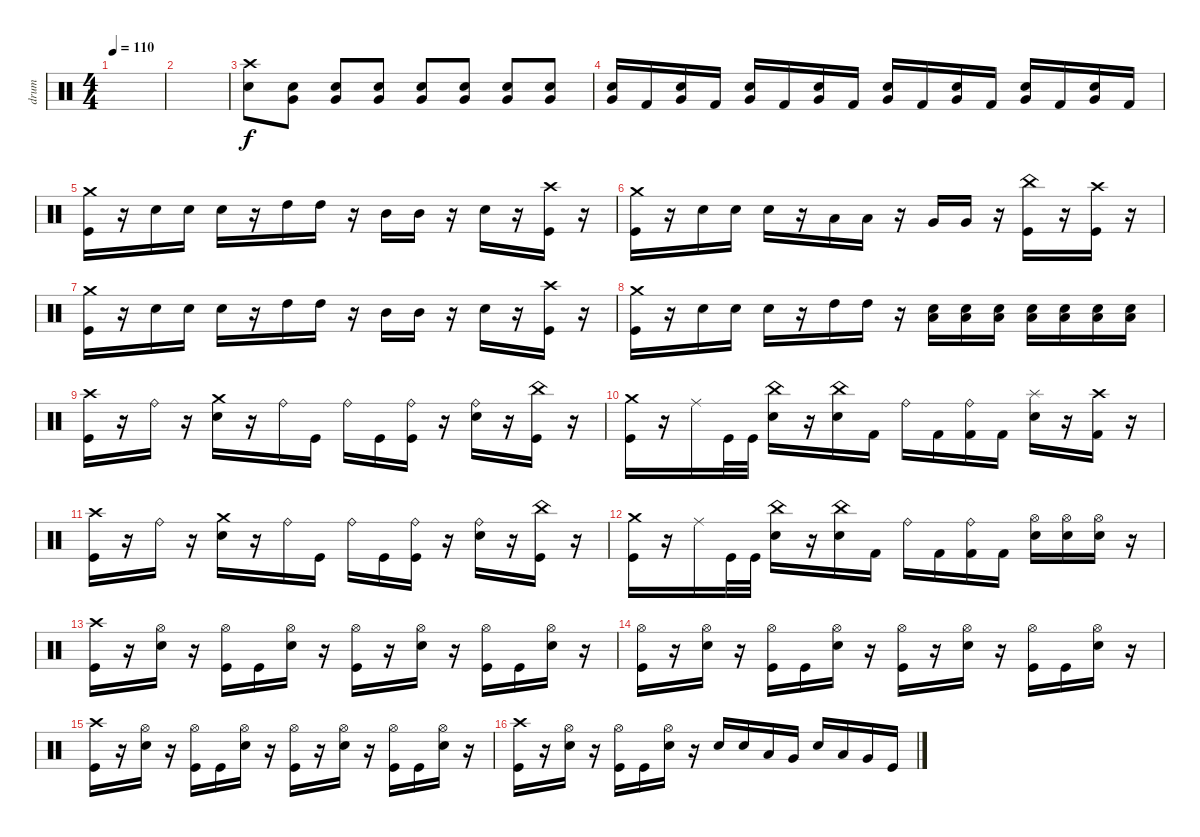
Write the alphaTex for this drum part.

\track ("drum" "drum") {instrument percussion}
\staff {score}
\articulation defaults
\ts (4 4)
\tempo 110
\clef neutral
\ks c
|
|
("Snare (hit) 2" "Crash high (hit)").8 ("Snare (hit) 2" "Very Low Tom (hit)").8 ("Snare (hit) 2" "Very Low Tom (hit)").8 ("Snare (hit) 2" "Very Low Tom (hit)").8 ("Snare (hit) 2" "Very Low Tom (hit)").8 ("Snare (hit) 2" "Very Low Tom (hit)").8 ("Snare (hit) 2" "Very Low Tom (hit)").8 ("Snare (hit) 2" "Very Low Tom (hit)").8 |
("Snare (hit) 2" "Very Low Tom (hit)").16 "Kick (hit) 2".16 ("Snare (hit) 2" "Very Low Tom (hit)").16 "Kick (hit) 2".16 ("Snare (hit) 2" "Very Low Tom (hit)").16 "Kick (hit) 2".16 ("Snare (hit) 2" "Very Low Tom (hit)").16 "Kick (hit) 2".16 ("Snare (hit) 2" "Very Low Tom (hit)").16 "Kick (hit) 2".16 ("Snare (hit) 2" "Very Low Tom (hit)").16 "Kick (hit) 2".16 ("Snare (hit) 2" "Very Low Tom (hit)").16 "Kick (hit) 2".16 ("Snare (hit) 2" "Very Low Tom (hit)").16 "Kick (hit) 2".16 |
("Crash medium (hit)" "Kick (hit)").16 r.16 "Snare (hit) 2".16 "Snare (hit) 2".16 "Snare (hit) 2".16 r.16 "High Tom (hit)".16 "High Tom (hit)".16 r.16 "Mid Tom (hit)".16 "Mid Tom (hit)".16 r.16 "Snare (hit) 2".16 r.16 ("Crash high (hit)" "Kick (hit)").16 r.16 |
("Crash medium (hit)" "Kick (hit)").16 r.16 "Snare (hit) 2".16 "Snare (hit) 2".16 "Snare (hit) 2".16 r.16 "Low Tom (hit)".16 "Low Tom (hit)".16 r.16 "Very Low Tom (hit)".16 "Very Low Tom (hit)".16 r.16 ("China (hit)" "Kick (hit)").16 r.16 ("Crash high (hit)" "Kick (hit)").16 r.16 |
("Crash medium (hit)" "Kick (hit)").16 r.16 "Snare (hit) 2".16 "Snare (hit) 2".16 "Snare (hit) 2".16 r.16 "High Tom (hit)".16 "High Tom (hit)".16 r.16 "Mid Tom (hit)".16 "Mid Tom (hit)".16 r.16 "Snare (hit) 2".16 r.16 ("Crash high (hit)" "Kick (hit)").16 r.16 |
("Crash medium (hit)" "Kick (hit)").16 r.16 "Snare (hit) 2".16 "Snare (hit) 2".16 "Snare (hit) 2".16 r.16 "High Tom (hit)".16 "High Tom (hit)".16 r.16 ("Low Tom (hit)" "Snare (hit) 2").16 ("Low Tom (hit)" "Snare (hit) 2").16 ("Low Tom (hit)" "Snare (hit) 2").16 ("Low Tom (hit)" "Snare (hit) 2").16 ("Low Tom (hit)" "Snare (hit) 2").16 ("Low Tom (hit)" "Snare (hit) 2").16 ("Low Tom (hit)" "Snare (hit) 2").16 |
("Crash high (hit)" "Kick (hit)").16 r.16 "Ride (bell)".16 r.16 ("Crash medium (hit)" "Snare (hit) 2").16 r.16 "Ride (bell)".16 "Kick (hit)".16 "Ride (bell)".16 "Kick (hit)".16 ("Ride (bell)" "Kick (hit)").16 r.16 ("Ride (bell)" "Snare (hit) 2").16 r.16 ("China (hit)" "Kick (hit)").16 r.16 |
("Crash medium (hit)" "Kick (hit)").16 r.16 "Ride (middle)".16 "Kick (hit)".32 "Kick (hit)".32 ("China (hit)" "Snare (hit) 2").16 r.16 ("China (hit)" "Snare (hit) 2").16 "Kick (hit) 2".16 "Ride (bell)".16 "Kick (hit) 2".16 ("Ride (bell)" "Kick (hit) 2").16 "Kick (hit) 2".16 ("Splash (hit)" "Snare (hit) 2").16 r.16 ("Crash high (hit)" "Kick (hit) 2").16 r.16 |
("Crash high (hit)" "Kick (hit)").16 r.16 "Ride (bell)".16 r.16 ("Crash medium (hit)" "Snare (hit) 2").16 r.16 "Ride (bell)".16 "Kick (hit)".16 "Ride (bell)".16 "Kick (hit)".16 ("Ride (bell)" "Kick (hit)").16 r.16 ("Ride (bell)" "Snare (hit) 2").16 r.16 ("China (hit)" "Kick (hit)").16 r.16 |
("Crash medium (hit)" "Kick (hit)").16 r.16 "Ride (middle)".16 "Kick (hit)".32 "Kick (hit)".32 ("China (hit)" "Snare (hit) 2").16 r.16 ("China (hit)" "Snare (hit) 2").16 "Kick (hit) 2".16 "Ride (bell)".16 "Kick (hit) 2".16 ("Ride (bell)" "Kick (hit) 2").16 "Kick (hit) 2".16 ("Hi-Hat (open)" "Snare (hit) 2").16 ("Hi-Hat (open)" "Snare (hit) 2").16 ("Hi-Hat (open)" "Snare (hit) 2").16 r.16 |
("Crash high (hit)" "Kick (hit)").16 r.16 ("Hi-Hat (open)" "Snare (hit) 2").16 r.16 ("Hi-Hat (open)" "Kick (hit)").16 "Kick (hit)".16 ("Hi-Hat (open)" "Snare (hit) 2").16 r.16 ("Hi-Hat (open)" "Kick (hit)").16 r.16 ("Hi-Hat (open)" "Snare (hit) 2").16 r.16 ("Hi-Hat (open)" "Kick (hit)").16 "Kick (hit)".16 ("Hi-Hat (open)" "Snare (hit) 2").16 r.16 |
("Hi-Hat (open)" "Kick (hit)").16 r.16 ("Hi-Hat (open)" "Snare (hit) 2").16 r.16 ("Hi-Hat (open)" "Kick (hit)").16 "Kick (hit)".16 ("Hi-Hat (open)" "Snare (hit) 2").16 r.16 ("Hi-Hat (open)" "Kick (hit)").16 r.16 ("Hi-Hat (open)" "Snare (hit) 2").16 r.16 ("Hi-Hat (open)" "Kick (hit)").16 "Kick (hit)".16 ("Hi-Hat (open)" "Snare (hit) 2").16 r.16 |
("Crash high (hit)" "Kick (hit)").16 r.16 ("Hi-Hat (open)" "Snare (hit) 2").16 r.16 ("Hi-Hat (open)" "Kick (hit)").16 "Kick (hit)".16 ("Hi-Hat (open)" "Snare (hit) 2").16 r.16 ("Hi-Hat (open)" "Kick (hit)").16 r.16 ("Hi-Hat (open)" "Snare (hit) 2").16 r.16 ("Hi-Hat (open)" "Kick (hit)").16 "Kick (hit)".16 ("Hi-Hat (open)" "Snare (hit) 2").16 r.16 |
("Crash high (hit)" "Kick (hit)").16 r.16 ("Hi-Hat (open)" "Snare (hit) 2").16 r.16 ("Hi-Hat (open)" "Kick (hit)").16 "Kick (hit)".16 ("Hi-Hat (open)" "Snare (hit) 2").16 r.16 "Snare (hit) 2".16 "Snare (hit) 2".16 "Low Tom (hit)".16 "Very Low Tom (hit)".16 "Snare (hit) 2".16 "Low Tom (hit)".16 "Very Low Tom (hit)".16 "Kick (hit)".16
